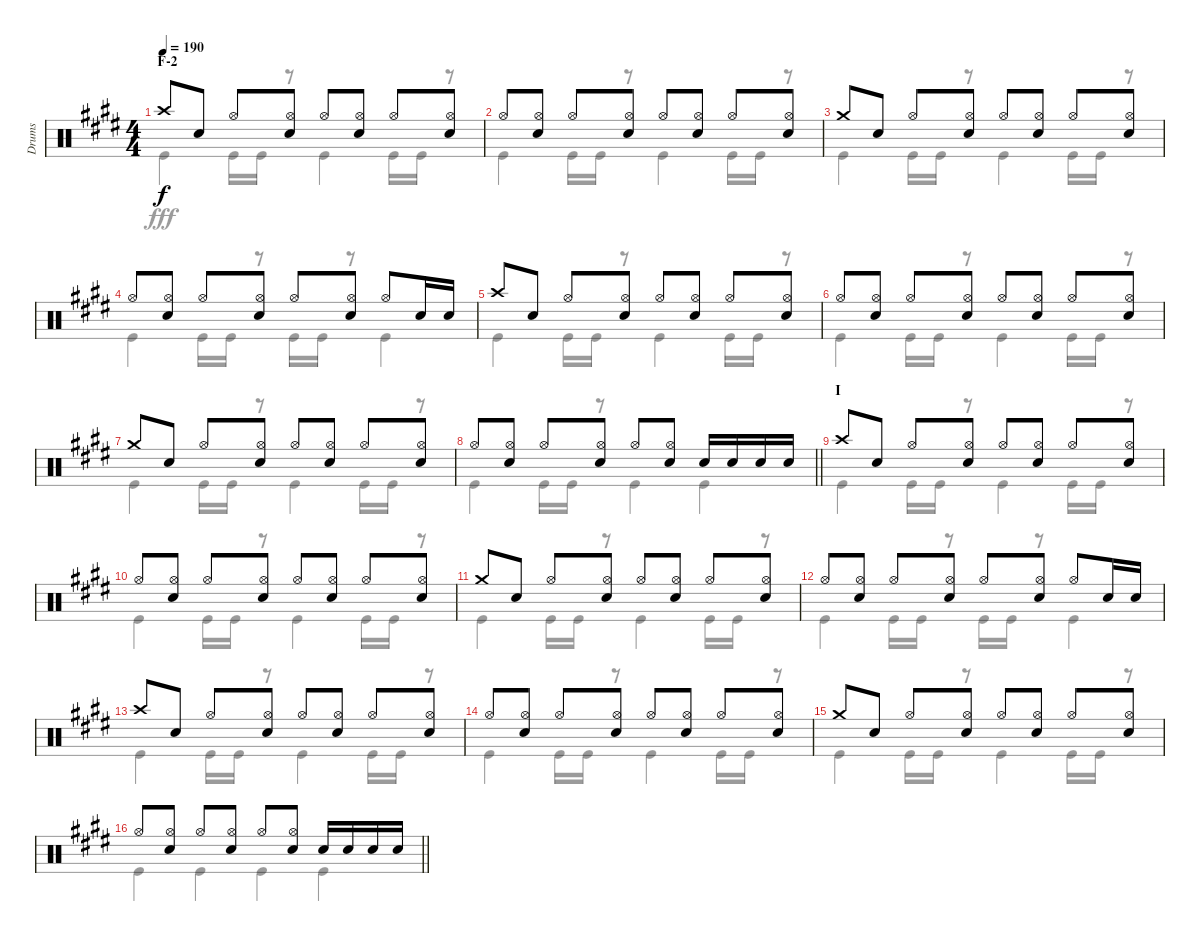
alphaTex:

\track ("Drums" "Drums") {instrument percussion}
\staff {score}
\articulation defaults
\voice
\ts (4 4)
\section ("" "F-2")
\tempo 190
\clef neutral
\ks e "Crash high (hit)".8{dy f} "Snare (hit) 2".8 "Hi-Hat (open)".8
("Hi-Hat (open)" "Snare (hit) 2").8 "Hi-Hat (open)".8 ("Hi-Hat (open)" "Snare (hit) 2").8 "Hi-Hat (open)".8 ("Hi-Hat (open)" "Snare (hit) 2").8 |
"Hi-Hat (open)".8 ("Hi-Hat (open)" "Snare (hit) 2").8 "Hi-Hat (open)".8 ("Hi-Hat (open)" "Snare (hit) 2").8 "Hi-Hat (open)".8 ("Hi-Hat (open)" "Snare (hit) 2").8 "Hi-Hat (open)".8 ("Hi-Hat (open)" "Snare (hit) 2").8 |
"Crash medium (hit)".8 "Snare (hit) 2".8 "Hi-Hat (open)".8 ("Hi-Hat (open)" "Snare (hit) 2").8 "Hi-Hat (open)".8 ("Hi-Hat (open)" "Snare (hit) 2").8 "Hi-Hat (open)".8 ("Hi-Hat (open)" "Snare (hit) 2").8 |
"Hi-Hat (open)".8 ("Hi-Hat (open)" "Snare (hit) 2").8 "Hi-Hat (open)".8 ("Hi-Hat (open)" "Snare (hit) 2").8 "Hi-Hat (open)".8 ("Hi-Hat (open)" "Snare (hit) 2").8 "Hi-Hat (open)".8 "Snare (hit) 2".16 "Snare (hit) 2".16 |
"Crash high (hit)".8 "Snare (hit) 2".8 "Hi-Hat (open)".8 ("Hi-Hat (open)" "Snare (hit) 2").8 "Hi-Hat (open)".8 ("Hi-Hat (open)" "Snare (hit) 2").8 "Hi-Hat (open)".8 ("Hi-Hat (open)" "Snare (hit) 2").8 |
"Hi-Hat (open)".8 ("Hi-Hat (open)" "Snare (hit) 2").8 "Hi-Hat (open)".8 ("Hi-Hat (open)" "Snare (hit) 2").8 "Hi-Hat (open)".8 ("Hi-Hat (open)" "Snare (hit) 2").8 "Hi-Hat (open)".8 ("Hi-Hat (open)" "Snare (hit) 2").8 |
"Crash medium (hit)".8 "Snare (hit) 2".8 "Hi-Hat (open)".8 ("Hi-Hat (open)" "Snare (hit) 2").8 "Hi-Hat (open)".8 ("Hi-Hat (open)" "Snare (hit) 2").8 "Hi-Hat (open)".8 ("Hi-Hat (open)" "Snare (hit) 2").8 |
\barLineRight lightlight "Hi-Hat (open)".8
("Hi-Hat (open)" "Snare (hit) 2").8 "Hi-Hat (open)".8 ("Hi-Hat (open)" "Snare (hit) 2").8 "Hi-Hat (open)".8 ("Hi-Hat (open)" "Snare (hit) 2").8 "Snare (hit) 2".16 "Snare (hit) 2".16 "Snare (hit) 2".16 "Snare (hit) 2".16 |
\section ("" "I")
"Crash high (hit)".8 "Snare (hit) 2".8 "Hi-Hat (open)".8 ("Hi-Hat (open)" "Snare (hit) 2").8 "Hi-Hat (open)".8 ("Hi-Hat (open)" "Snare (hit) 2").8 "Hi-Hat (open)".8 ("Hi-Hat (open)" "Snare (hit) 2").8 |
"Hi-Hat (open)".8 ("Hi-Hat (open)" "Snare (hit) 2").8 "Hi-Hat (open)".8 ("Hi-Hat (open)" "Snare (hit) 2").8 "Hi-Hat (open)".8 ("Hi-Hat (open)" "Snare (hit) 2").8 "Hi-Hat (open)".8 ("Hi-Hat (open)" "Snare (hit) 2").8 |
"Crash medium (hit)".8 "Snare (hit) 2".8 "Hi-Hat (open)".8 ("Hi-Hat (open)" "Snare (hit) 2").8 "Hi-Hat (open)".8 ("Hi-Hat (open)" "Snare (hit) 2").8 "Hi-Hat (open)".8 ("Hi-Hat (open)" "Snare (hit) 2").8 |
"Hi-Hat (open)".8 ("Hi-Hat (open)" "Snare (hit) 2").8 "Hi-Hat (open)".8 ("Hi-Hat (open)" "Snare (hit) 2").8 "Hi-Hat (open)".8 ("Hi-Hat (open)" "Snare (hit) 2").8 "Hi-Hat (open)".8 "Snare (hit) 2".16 "Snare (hit) 2".16 |
"Crash high (hit)".8 "Snare (hit) 2".8 "Hi-Hat (open)".8 ("Hi-Hat (open)" "Snare (hit) 2").8 "Hi-Hat (open)".8 ("Hi-Hat (open)" "Snare (hit) 2").8 "Hi-Hat (open)".8 ("Hi-Hat (open)" "Snare (hit) 2").8 |
"Hi-Hat (open)".8 ("Hi-Hat (open)" "Snare (hit) 2").8 "Hi-Hat (open)".8 ("Hi-Hat (open)" "Snare (hit) 2").8 "Hi-Hat (open)".8 ("Hi-Hat (open)" "Snare (hit) 2").8 "Hi-Hat (open)".8 ("Hi-Hat (open)" "Snare (hit) 2").8 |
"Crash medium (hit)".8 "Snare (hit) 2".8 "Hi-Hat (open)".8 ("Hi-Hat (open)" "Snare (hit) 2").8 "Hi-Hat (open)".8 ("Hi-Hat (open)" "Snare (hit) 2").8 "Hi-Hat (open)".8 ("Hi-Hat (open)" "Snare (hit) 2").8 |
\barLineRight lightlight "Hi-Hat (open)".8
("Hi-Hat (open)" "Snare (hit) 2").8 "Hi-Hat (open)".8 ("Hi-Hat (open)" "Snare (hit) 2").8 "Hi-Hat (open)".8 ("Hi-Hat (open)" "Snare (hit) 2").8 "Snare (hit) 2".16 "Snare (hit) 2".16 "Snare (hit) 2".16 "Snare (hit) 2".16
\voice
\clef neutral
\ottava regular
\simile none
\ks e "Kick (hit)".4{dy fff} "Kick (hit)".16 "Kick (hit)".16
r.8 "Kick (hit)".4 "Kick (hit)".16 "Kick (hit)".16 r.8 |
"Kick (hit)".4 "Kick (hit)".16 "Kick (hit)".16 r.8 "Kick (hit)".4 "Kick (hit)".16 "Kick (hit)".16 r.8 |
"Kick (hit)".4 "Kick (hit)".16 "Kick (hit)".16 r.8 "Kick (hit)".4 "Kick (hit)".16 "Kick (hit)".16 r.8 |
"Kick (hit)".4 "Kick (hit)".16 "Kick (hit)".16 r.8 "Kick (hit)".16 "Kick (hit)".16 r.8 "Kick (hit)".4 |
"Kick (hit)".4 "Kick (hit)".16 "Kick (hit)".16 r.8 "Kick (hit)".4 "Kick (hit)".16 "Kick (hit)".16 r.8 |
"Kick (hit)".4 "Kick (hit)".16 "Kick (hit)".16 r.8 "Kick (hit)".4 "Kick (hit)".16 "Kick (hit)".16 r.8 |
"Kick (hit)".4 "Kick (hit)".16 "Kick (hit)".16 r.8 "Kick (hit)".4 "Kick (hit)".16 "Kick (hit)".16 r.8 |
\barLineRight lightlight "Kick (hit)".4 "Kick (hit)".16 "Kick (hit)".16
r.8 "Kick (hit)".4 "Kick (hit)".4 |
"Kick (hit)".4 "Kick (hit)".16 "Kick (hit)".16 r.8 "Kick (hit)".4 "Kick (hit)".16 "Kick (hit)".16 r.8 |
"Kick (hit)".4 "Kick (hit)".16 "Kick (hit)".16 r.8 "Kick (hit)".4 "Kick (hit)".16 "Kick (hit)".16 r.8 |
"Kick (hit)".4 "Kick (hit)".16 "Kick (hit)".16 r.8 "Kick (hit)".4 "Kick (hit)".16 "Kick (hit)".16 r.8 |
"Kick (hit)".4 "Kick (hit)".16 "Kick (hit)".16 r.8 "Kick (hit)".16 "Kick (hit)".16 r.8 "Kick (hit)".4 |
"Kick (hit)".4 "Kick (hit)".16 "Kick (hit)".16 r.8 "Kick (hit)".4 "Kick (hit)".16 "Kick (hit)".16 r.8 |
"Kick (hit)".4 "Kick (hit)".16 "Kick (hit)".16 r.8 "Kick (hit)".4 "Kick (hit)".16 "Kick (hit)".16 r.8 |
"Kick (hit)".4 "Kick (hit)".16 "Kick (hit)".16 r.8 "Kick (hit)".4 "Kick (hit)".16 "Kick (hit)".16 r.8 |
\barLineRight lightlight "Kick (hit)".4 "Kick (hit)".4 "Kick (hit)".4 "Kick (hit)".4
